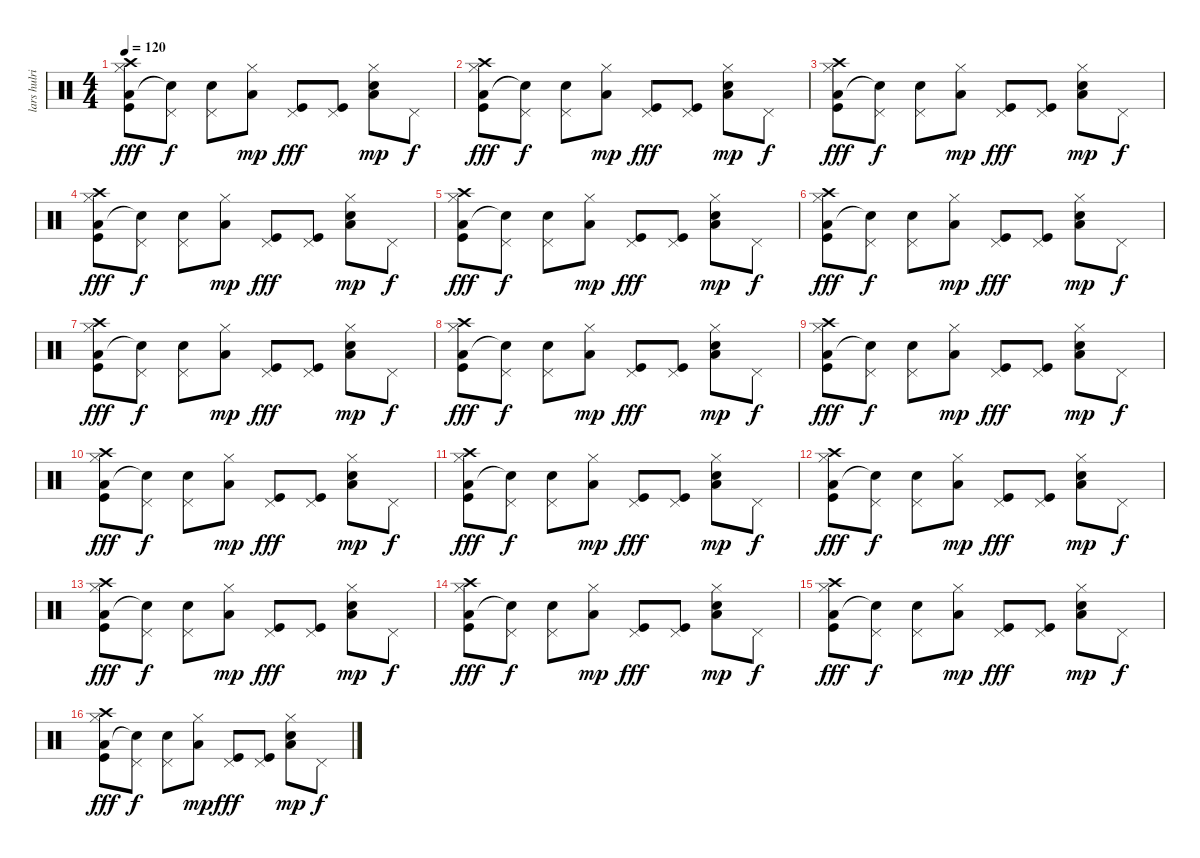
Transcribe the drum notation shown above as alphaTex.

\track ("lars hulrich" "lars hulri") {instrument percussion}
\staff {score}
\articulation defaults
\ts (4 4)
\tempo 120
\clef neutral
\ks c
("Hi-Hat (closed)" "Low Floor Tom (hit)" "Crash high (hit)" "Kick (hit)").8{dy fff} ("Pedal Hi-Hat (hit)" "Snare (hit)"{t}).8{dy f} ("Pedal Hi-Hat (hit)" "Electric Snare (hit)").8 ("Hi-Hat (closed)" "Low Floor Tom (hit)").8{dy mp} ("Pedal Hi-Hat (hit)" "Kick (hit)").8{dy fff} ("Pedal Hi-Hat (hit)" "Kick (hit)").8 ("Hi-Hat (closed)" "Low Floor Tom (hit)" "Electric Snare (hit)").8{dy mp} "Pedal Hi-Hat (hit)".8{dy f} |
("Hi-Hat (closed)" "Low Floor Tom (hit)" "Crash high (hit)" "Kick (hit)").8{dy fff} ("Pedal Hi-Hat (hit)" "Snare (hit)"{t}).8{dy f} ("Pedal Hi-Hat (hit)" "Electric Snare (hit)").8 ("Hi-Hat (closed)" "Low Floor Tom (hit)").8{dy mp} ("Pedal Hi-Hat (hit)" "Kick (hit)").8{dy fff} ("Pedal Hi-Hat (hit)" "Kick (hit)").8 ("Hi-Hat (closed)" "Low Floor Tom (hit)" "Electric Snare (hit)").8{dy mp} "Pedal Hi-Hat (hit)".8{dy f} |
("Hi-Hat (closed)" "Low Floor Tom (hit)" "Crash high (hit)" "Kick (hit)").8{dy fff} ("Pedal Hi-Hat (hit)" "Snare (hit)"{t}).8{dy f} ("Pedal Hi-Hat (hit)" "Electric Snare (hit)").8 ("Hi-Hat (closed)" "Low Floor Tom (hit)").8{dy mp} ("Pedal Hi-Hat (hit)" "Kick (hit)").8{dy fff} ("Pedal Hi-Hat (hit)" "Kick (hit)").8 ("Hi-Hat (closed)" "Low Floor Tom (hit)" "Electric Snare (hit)").8{dy mp} "Pedal Hi-Hat (hit)".8{dy f} |
("Hi-Hat (closed)" "Low Floor Tom (hit)" "Crash high (hit)" "Kick (hit)").8{dy fff} ("Pedal Hi-Hat (hit)" "Snare (hit)"{t}).8{dy f} ("Pedal Hi-Hat (hit)" "Electric Snare (hit)").8 ("Hi-Hat (closed)" "Low Floor Tom (hit)").8{dy mp} ("Pedal Hi-Hat (hit)" "Kick (hit)").8{dy fff} ("Pedal Hi-Hat (hit)" "Kick (hit)").8 ("Hi-Hat (closed)" "Low Floor Tom (hit)" "Electric Snare (hit)").8{dy mp} "Pedal Hi-Hat (hit)".8{dy f} |
("Hi-Hat (closed)" "Low Floor Tom (hit)" "Crash high (hit)" "Kick (hit)").8{dy fff} ("Pedal Hi-Hat (hit)" "Snare (hit)"{t}).8{dy f} ("Pedal Hi-Hat (hit)" "Electric Snare (hit)").8 ("Hi-Hat (closed)" "Low Floor Tom (hit)").8{dy mp} ("Pedal Hi-Hat (hit)" "Kick (hit)").8{dy fff} ("Pedal Hi-Hat (hit)" "Kick (hit)").8 ("Hi-Hat (closed)" "Low Floor Tom (hit)" "Electric Snare (hit)").8{dy mp} "Pedal Hi-Hat (hit)".8{dy f} |
("Hi-Hat (closed)" "Low Floor Tom (hit)" "Crash high (hit)" "Kick (hit)").8{dy fff} ("Pedal Hi-Hat (hit)" "Snare (hit)"{t}).8{dy f} ("Pedal Hi-Hat (hit)" "Electric Snare (hit)").8 ("Hi-Hat (closed)" "Low Floor Tom (hit)").8{dy mp} ("Pedal Hi-Hat (hit)" "Kick (hit)").8{dy fff} ("Pedal Hi-Hat (hit)" "Kick (hit)").8 ("Hi-Hat (closed)" "Low Floor Tom (hit)" "Electric Snare (hit)").8{dy mp} "Pedal Hi-Hat (hit)".8{dy f} |
("Hi-Hat (closed)" "Low Floor Tom (hit)" "Crash high (hit)" "Kick (hit)").8{dy fff} ("Pedal Hi-Hat (hit)" "Snare (hit)"{t}).8{dy f} ("Pedal Hi-Hat (hit)" "Electric Snare (hit)").8 ("Hi-Hat (closed)" "Low Floor Tom (hit)").8{dy mp} ("Pedal Hi-Hat (hit)" "Kick (hit)").8{dy fff} ("Pedal Hi-Hat (hit)" "Kick (hit)").8 ("Hi-Hat (closed)" "Low Floor Tom (hit)" "Electric Snare (hit)").8{dy mp} "Pedal Hi-Hat (hit)".8{dy f} |
("Hi-Hat (closed)" "Low Floor Tom (hit)" "Crash high (hit)" "Kick (hit)").8{dy fff} ("Pedal Hi-Hat (hit)" "Snare (hit)"{t}).8{dy f} ("Pedal Hi-Hat (hit)" "Electric Snare (hit)").8 ("Hi-Hat (closed)" "Low Floor Tom (hit)").8{dy mp} ("Pedal Hi-Hat (hit)" "Kick (hit)").8{dy fff} ("Pedal Hi-Hat (hit)" "Kick (hit)").8 ("Hi-Hat (closed)" "Low Floor Tom (hit)" "Electric Snare (hit)").8{dy mp} "Pedal Hi-Hat (hit)".8{dy f} |
("Hi-Hat (closed)" "Low Floor Tom (hit)" "Crash high (hit)" "Kick (hit)").8{dy fff} ("Pedal Hi-Hat (hit)" "Snare (hit)"{t}).8{dy f} ("Pedal Hi-Hat (hit)" "Electric Snare (hit)").8 ("Hi-Hat (closed)" "Low Floor Tom (hit)").8{dy mp} ("Pedal Hi-Hat (hit)" "Kick (hit)").8{dy fff} ("Pedal Hi-Hat (hit)" "Kick (hit)").8 ("Hi-Hat (closed)" "Low Floor Tom (hit)" "Electric Snare (hit)").8{dy mp} "Pedal Hi-Hat (hit)".8{dy f} |
("Hi-Hat (closed)" "Low Floor Tom (hit)" "Crash high (hit)" "Kick (hit)").8{dy fff} ("Pedal Hi-Hat (hit)" "Snare (hit)"{t}).8{dy f} ("Pedal Hi-Hat (hit)" "Electric Snare (hit)").8 ("Hi-Hat (closed)" "Low Floor Tom (hit)").8{dy mp} ("Pedal Hi-Hat (hit)" "Kick (hit)").8{dy fff} ("Pedal Hi-Hat (hit)" "Kick (hit)").8 ("Hi-Hat (closed)" "Low Floor Tom (hit)" "Electric Snare (hit)").8{dy mp} "Pedal Hi-Hat (hit)".8{dy f} |
("Hi-Hat (closed)" "Low Floor Tom (hit)" "Crash high (hit)" "Kick (hit)").8{dy fff} ("Pedal Hi-Hat (hit)" "Snare (hit)"{t}).8{dy f} ("Pedal Hi-Hat (hit)" "Electric Snare (hit)").8 ("Hi-Hat (closed)" "Low Floor Tom (hit)").8{dy mp} ("Pedal Hi-Hat (hit)" "Kick (hit)").8{dy fff} ("Pedal Hi-Hat (hit)" "Kick (hit)").8 ("Hi-Hat (closed)" "Low Floor Tom (hit)" "Electric Snare (hit)").8{dy mp} "Pedal Hi-Hat (hit)".8{dy f} |
("Hi-Hat (closed)" "Low Floor Tom (hit)" "Crash high (hit)" "Kick (hit)").8{dy fff} ("Pedal Hi-Hat (hit)" "Snare (hit)"{t}).8{dy f} ("Pedal Hi-Hat (hit)" "Electric Snare (hit)").8 ("Hi-Hat (closed)" "Low Floor Tom (hit)").8{dy mp} ("Pedal Hi-Hat (hit)" "Kick (hit)").8{dy fff} ("Pedal Hi-Hat (hit)" "Kick (hit)").8 ("Hi-Hat (closed)" "Low Floor Tom (hit)" "Electric Snare (hit)").8{dy mp} "Pedal Hi-Hat (hit)".8{dy f} |
("Hi-Hat (closed)" "Low Floor Tom (hit)" "Crash high (hit)" "Kick (hit)").8{dy fff} ("Pedal Hi-Hat (hit)" "Snare (hit)"{t}).8{dy f} ("Pedal Hi-Hat (hit)" "Electric Snare (hit)").8 ("Hi-Hat (closed)" "Low Floor Tom (hit)").8{dy mp} ("Pedal Hi-Hat (hit)" "Kick (hit)").8{dy fff} ("Pedal Hi-Hat (hit)" "Kick (hit)").8 ("Hi-Hat (closed)" "Low Floor Tom (hit)" "Electric Snare (hit)").8{dy mp} "Pedal Hi-Hat (hit)".8{dy f} |
("Hi-Hat (closed)" "Low Floor Tom (hit)" "Crash high (hit)" "Kick (hit)").8{dy fff} ("Pedal Hi-Hat (hit)" "Snare (hit)"{t}).8{dy f} ("Pedal Hi-Hat (hit)" "Electric Snare (hit)").8 ("Hi-Hat (closed)" "Low Floor Tom (hit)").8{dy mp} ("Pedal Hi-Hat (hit)" "Kick (hit)").8{dy fff} ("Pedal Hi-Hat (hit)" "Kick (hit)").8 ("Hi-Hat (closed)" "Low Floor Tom (hit)" "Electric Snare (hit)").8{dy mp} "Pedal Hi-Hat (hit)".8{dy f} |
("Hi-Hat (closed)" "Low Floor Tom (hit)" "Crash high (hit)" "Kick (hit)").8{dy fff} ("Pedal Hi-Hat (hit)" "Snare (hit)"{t}).8{dy f} ("Pedal Hi-Hat (hit)" "Electric Snare (hit)").8 ("Hi-Hat (closed)" "Low Floor Tom (hit)").8{dy mp} ("Pedal Hi-Hat (hit)" "Kick (hit)").8{dy fff} ("Pedal Hi-Hat (hit)" "Kick (hit)").8 ("Hi-Hat (closed)" "Low Floor Tom (hit)" "Electric Snare (hit)").8{dy mp} "Pedal Hi-Hat (hit)".8{dy f} |
("Hi-Hat (closed)" "Low Floor Tom (hit)" "Crash high (hit)" "Kick (hit)").8{dy fff} ("Pedal Hi-Hat (hit)" "Snare (hit)"{t}).8{dy f} ("Pedal Hi-Hat (hit)" "Electric Snare (hit)").8 ("Hi-Hat (closed)" "Low Floor Tom (hit)").8{dy mp} ("Pedal Hi-Hat (hit)" "Kick (hit)").8{dy fff} ("Pedal Hi-Hat (hit)" "Kick (hit)").8 ("Hi-Hat (closed)" "Low Floor Tom (hit)" "Electric Snare (hit)").8{dy mp} "Pedal Hi-Hat (hit)".8{dy f}
